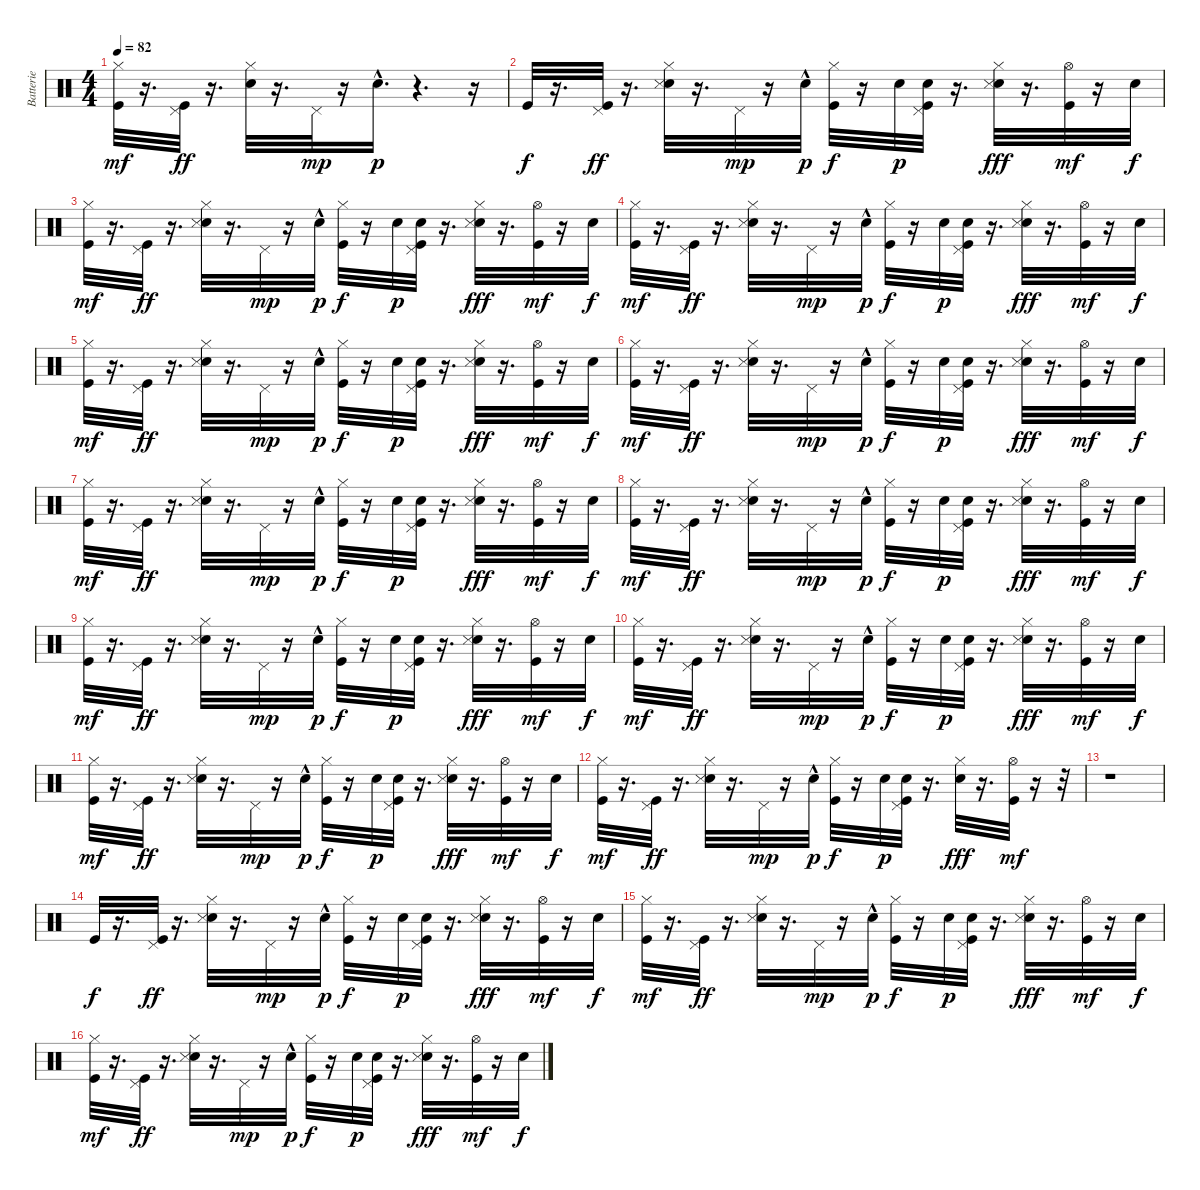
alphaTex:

\track ("Batterie" "Batterie") {instrument percussion}
\staff {score}
\articulation defaults
\ts (4 4)
\tempo 82
\clef neutral
\ks c
("Hi-Hat (closed)" "Kick (hit)").32{dy mf} r.16{d} ("Pedal Hi-Hat (hit)" "Kick (hit)").32{dy ff} r.16{d} ("Electric Snare (hit)" "Hi-Hat (closed)").32 r.16{d} "Pedal Hi-Hat (hit)".32{dy mp} r.16 "Electric Snare (hit)"{hac}.16{d dy p} r.4{d} r.16 |
"Kick (hit)".32{dy f} r.16{d} ("Pedal Hi-Hat (hit)" "Kick (hit)").32{dy ff} r.16{d} ("Electric Snare (hit)" "Hi-Hat (closed)" "Snare (side stick) 3").32 r.16{d} "Pedal Hi-Hat (hit)".32{dy mp} r.16 "Electric Snare (hit)"{hac}.32{dy p} ("Hi-Hat (closed)" "Kick (hit)").32{dy f} r.16 "Electric Snare (hit)".32{dy p} ("Electric Snare (hit)" "Pedal Hi-Hat (hit)" "Kick (hit)").32 r.16{d} ("Electric Snare (hit)" "Hi-Hat (closed)" "Snare (side stick) 3").32{dy fff} r.16{d} ("Hi-Hat (open)" "Kick (hit)").32{dy mf} r.16 "Electric Snare (hit)".32{dy f} |
("Hi-Hat (closed)" "Kick (hit)").32{dy mf} r.16{d} ("Pedal Hi-Hat (hit)" "Kick (hit)").32{dy ff} r.16{d} ("Electric Snare (hit)" "Hi-Hat (closed)" "Snare (side stick) 3").32 r.16{d} "Pedal Hi-Hat (hit)".32{dy mp} r.16 "Electric Snare (hit)"{hac}.32{dy p} ("Hi-Hat (closed)" "Kick (hit)").32{dy f} r.16 "Electric Snare (hit)".32{dy p} ("Electric Snare (hit)" "Pedal Hi-Hat (hit)" "Kick (hit)").32 r.16{d} ("Electric Snare (hit)" "Hi-Hat (closed)" "Snare (side stick) 3").32{dy fff} r.16{d} ("Hi-Hat (open)" "Kick (hit)").32{dy mf} r.16 "Electric Snare (hit)".32{dy f} |
("Hi-Hat (closed)" "Kick (hit)").32{dy mf} r.16{d} ("Pedal Hi-Hat (hit)" "Kick (hit)").32{dy ff} r.16{d} ("Electric Snare (hit)" "Hi-Hat (closed)" "Snare (side stick) 3").32 r.16{d} "Pedal Hi-Hat (hit)".32{dy mp} r.16 "Electric Snare (hit)"{hac}.32{dy p} ("Hi-Hat (closed)" "Kick (hit)").32{dy f} r.16 "Electric Snare (hit)".32{dy p} ("Electric Snare (hit)" "Pedal Hi-Hat (hit)" "Kick (hit)").32 r.16{d} ("Electric Snare (hit)" "Hi-Hat (closed)" "Snare (side stick) 3").32{dy fff} r.16{d} ("Hi-Hat (open)" "Kick (hit)").32{dy mf} r.16 "Electric Snare (hit)".32{dy f} |
("Hi-Hat (closed)" "Kick (hit)").32{dy mf} r.16{d} ("Pedal Hi-Hat (hit)" "Kick (hit)").32{dy ff} r.16{d} ("Electric Snare (hit)" "Hi-Hat (closed)" "Snare (side stick) 3").32 r.16{d} "Pedal Hi-Hat (hit)".32{dy mp} r.16 "Electric Snare (hit)"{hac}.32{dy p} ("Hi-Hat (closed)" "Kick (hit)").32{dy f} r.16 "Electric Snare (hit)".32{dy p} ("Electric Snare (hit)" "Pedal Hi-Hat (hit)" "Kick (hit)").32 r.16{d} ("Electric Snare (hit)" "Hi-Hat (closed)" "Snare (side stick) 3").32{dy fff} r.16{d} ("Hi-Hat (open)" "Kick (hit)").32{dy mf} r.16 "Electric Snare (hit)".32{dy f} |
("Hi-Hat (closed)" "Kick (hit)").32{dy mf} r.16{d} ("Pedal Hi-Hat (hit)" "Kick (hit)").32{dy ff} r.16{d} ("Electric Snare (hit)" "Hi-Hat (closed)" "Snare (side stick) 3").32 r.16{d} "Pedal Hi-Hat (hit)".32{dy mp} r.16 "Electric Snare (hit)"{hac}.32{dy p} ("Hi-Hat (closed)" "Kick (hit)").32{dy f} r.16 "Electric Snare (hit)".32{dy p} ("Electric Snare (hit)" "Pedal Hi-Hat (hit)" "Kick (hit)").32 r.16{d} ("Electric Snare (hit)" "Hi-Hat (closed)" "Snare (side stick) 3").32{dy fff} r.16{d} ("Hi-Hat (open)" "Kick (hit)").32{dy mf} r.16 "Electric Snare (hit)".32{dy f} |
("Hi-Hat (closed)" "Kick (hit)").32{dy mf} r.16{d} ("Pedal Hi-Hat (hit)" "Kick (hit)").32{dy ff} r.16{d} ("Electric Snare (hit)" "Hi-Hat (closed)" "Snare (side stick) 3").32 r.16{d} "Pedal Hi-Hat (hit)".32{dy mp} r.16 "Electric Snare (hit)"{hac}.32{dy p} ("Hi-Hat (closed)" "Kick (hit)").32{dy f} r.16 "Electric Snare (hit)".32{dy p} ("Electric Snare (hit)" "Pedal Hi-Hat (hit)" "Kick (hit)").32 r.16{d} ("Electric Snare (hit)" "Hi-Hat (closed)" "Snare (side stick) 3").32{dy fff} r.16{d} ("Hi-Hat (open)" "Kick (hit)").32{dy mf} r.16 "Electric Snare (hit)".32{dy f} |
("Hi-Hat (closed)" "Kick (hit)").32{dy mf} r.16{d} ("Pedal Hi-Hat (hit)" "Kick (hit)").32{dy ff} r.16{d} ("Electric Snare (hit)" "Hi-Hat (closed)" "Snare (side stick) 3").32 r.16{d} "Pedal Hi-Hat (hit)".32{dy mp} r.16 "Electric Snare (hit)"{hac}.32{dy p} ("Hi-Hat (closed)" "Kick (hit)").32{dy f} r.16 "Electric Snare (hit)".32{dy p} ("Electric Snare (hit)" "Pedal Hi-Hat (hit)" "Kick (hit)").32 r.16{d} ("Electric Snare (hit)" "Hi-Hat (closed)" "Snare (side stick) 3").32{dy fff} r.16{d} ("Hi-Hat (open)" "Kick (hit)").32{dy mf} r.16 "Electric Snare (hit)".32{dy f} |
("Hi-Hat (closed)" "Kick (hit)").32{dy mf} r.16{d} ("Pedal Hi-Hat (hit)" "Kick (hit)").32{dy ff} r.16{d} ("Electric Snare (hit)" "Hi-Hat (closed)" "Snare (side stick) 3").32 r.16{d} "Pedal Hi-Hat (hit)".32{dy mp} r.16 "Electric Snare (hit)"{hac}.32{dy p} ("Hi-Hat (closed)" "Kick (hit)").32{dy f} r.16 "Electric Snare (hit)".32{dy p} ("Electric Snare (hit)" "Pedal Hi-Hat (hit)" "Kick (hit)").32 r.16{d} ("Electric Snare (hit)" "Hi-Hat (closed)" "Snare (side stick) 3").32{dy fff} r.16{d} ("Hi-Hat (open)" "Kick (hit)").32{dy mf} r.16 "Electric Snare (hit)".32{dy f} |
("Hi-Hat (closed)" "Kick (hit)").32{dy mf} r.16{d} ("Pedal Hi-Hat (hit)" "Kick (hit)").32{dy ff} r.16{d} ("Electric Snare (hit)" "Hi-Hat (closed)" "Snare (side stick) 3").32 r.16{d} "Pedal Hi-Hat (hit)".32{dy mp} r.16 "Electric Snare (hit)"{hac}.32{dy p} ("Hi-Hat (closed)" "Kick (hit)").32{dy f} r.16 "Electric Snare (hit)".32{dy p} ("Electric Snare (hit)" "Pedal Hi-Hat (hit)" "Kick (hit)").32 r.16{d} ("Electric Snare (hit)" "Hi-Hat (closed)" "Snare (side stick) 3").32{dy fff} r.16{d} ("Hi-Hat (open)" "Kick (hit)").32{dy mf} r.16 "Electric Snare (hit)".32{dy f} |
("Hi-Hat (closed)" "Kick (hit)").32{dy mf} r.16{d} ("Pedal Hi-Hat (hit)" "Kick (hit)").32{dy ff} r.16{d} ("Electric Snare (hit)" "Hi-Hat (closed)" "Snare (side stick) 3").32 r.16{d} "Pedal Hi-Hat (hit)".32{dy mp} r.16 "Electric Snare (hit)"{hac}.32{dy p} ("Hi-Hat (closed)" "Kick (hit)").32{dy f} r.16 "Electric Snare (hit)".32{dy p} ("Electric Snare (hit)" "Pedal Hi-Hat (hit)" "Kick (hit)").32 r.16{d} ("Electric Snare (hit)" "Hi-Hat (closed)" "Snare (side stick) 3").32{dy fff} r.16{d} ("Hi-Hat (open)" "Kick (hit)").32{dy mf} r.16 "Electric Snare (hit)".32{dy f} |
("Hi-Hat (closed)" "Kick (hit)").32{dy mf} r.16{d} ("Pedal Hi-Hat (hit)" "Kick (hit)").32{dy ff} r.16{d} ("Electric Snare (hit)" "Hi-Hat (closed)" "Snare (side stick) 3").32 r.16{d} "Pedal Hi-Hat (hit)".32{dy mp} r.16 "Electric Snare (hit)"{hac}.32{dy p} ("Hi-Hat (closed)" "Kick (hit)").32{dy f} r.16 "Electric Snare (hit)".32{dy p} ("Electric Snare (hit)" "Pedal Hi-Hat (hit)" "Kick (hit)").32 r.16{d} ("Electric Snare (hit)" "Hi-Hat (closed)").32{dy fff} r.16{d} ("Hi-Hat (open)" "Kick (hit)").32{dy mf} r.16 r.32 |
r.1 |
"Kick (hit)".32{dy f} r.16{d} ("Pedal Hi-Hat (hit)" "Kick (hit)").32{dy ff} r.16{d} ("Electric Snare (hit)" "Hi-Hat (closed)" "Snare (side stick) 3").32 r.16{d} "Pedal Hi-Hat (hit)".32{dy mp} r.16 "Electric Snare (hit)"{hac}.32{dy p} ("Hi-Hat (closed)" "Kick (hit)").32{dy f} r.16 "Electric Snare (hit)".32{dy p} ("Electric Snare (hit)" "Pedal Hi-Hat (hit)" "Kick (hit)").32 r.16{d} ("Electric Snare (hit)" "Hi-Hat (closed)" "Snare (side stick) 3").32{dy fff} r.16{d} ("Hi-Hat (open)" "Kick (hit)").32{dy mf} r.16 "Electric Snare (hit)".32{dy f} |
("Hi-Hat (closed)" "Kick (hit)").32{dy mf} r.16{d} ("Pedal Hi-Hat (hit)" "Kick (hit)").32{dy ff} r.16{d} ("Electric Snare (hit)" "Hi-Hat (closed)" "Snare (side stick) 3").32 r.16{d} "Pedal Hi-Hat (hit)".32{dy mp} r.16 "Electric Snare (hit)"{hac}.32{dy p} ("Hi-Hat (closed)" "Kick (hit)").32{dy f} r.16 "Electric Snare (hit)".32{dy p} ("Electric Snare (hit)" "Pedal Hi-Hat (hit)" "Kick (hit)").32 r.16{d} ("Electric Snare (hit)" "Hi-Hat (closed)" "Snare (side stick) 3").32{dy fff} r.16{d} ("Hi-Hat (open)" "Kick (hit)").32{dy mf} r.16 "Electric Snare (hit)".32{dy f} |
("Hi-Hat (closed)" "Kick (hit)").32{dy mf} r.16{d} ("Pedal Hi-Hat (hit)" "Kick (hit)").32{dy ff} r.16{d} ("Electric Snare (hit)" "Hi-Hat (closed)" "Snare (side stick) 3").32 r.16{d} "Pedal Hi-Hat (hit)".32{dy mp} r.16 "Electric Snare (hit)"{hac}.32{dy p} ("Hi-Hat (closed)" "Kick (hit)").32{dy f} r.16 "Electric Snare (hit)".32{dy p} ("Electric Snare (hit)" "Pedal Hi-Hat (hit)" "Kick (hit)").32 r.16{d} ("Electric Snare (hit)" "Hi-Hat (closed)" "Snare (side stick) 3").32{dy fff} r.16{d} ("Hi-Hat (open)" "Kick (hit)").32{dy mf} r.16 "Electric Snare (hit)".32{dy f}
